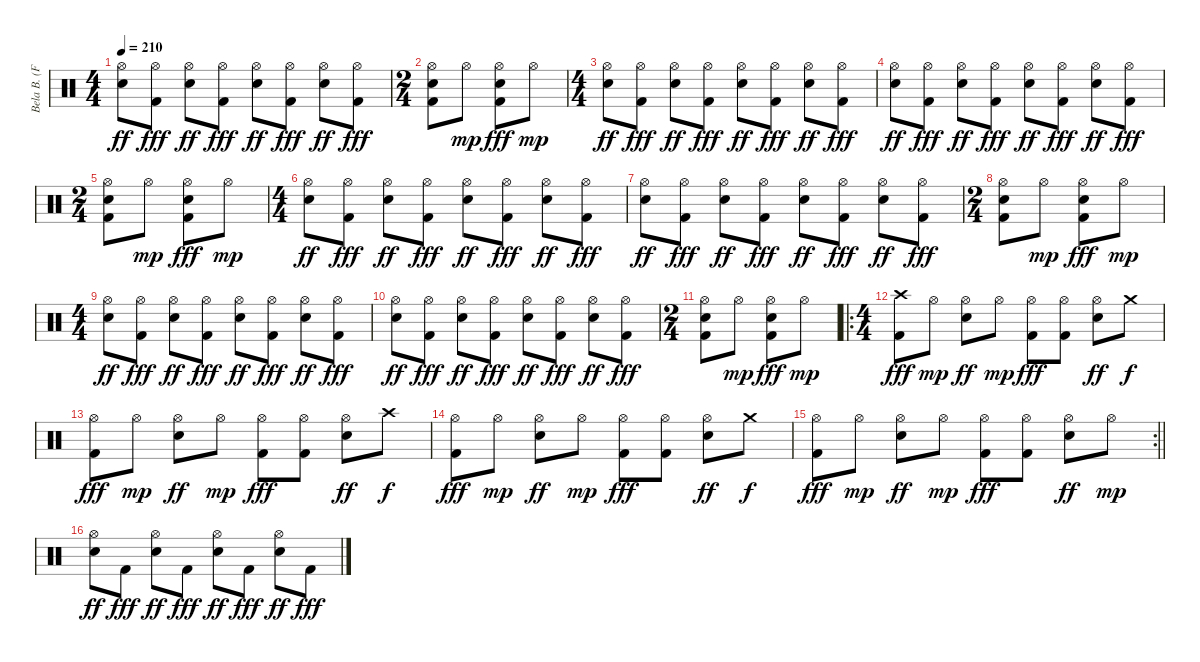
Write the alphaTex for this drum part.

\track ("Bela B. (Felsenheimer)" "Bela B. (F") {instrument percussion}
\staff {score}
\articulation defaults
\ts (4 4)
\tempo 210
\clef neutral
\ks c
("Hi-Hat (open)" "Electric Snare (hit)").8{dy ff} ("Hi-Hat (open)" "Kick (hit) 2").8{dy fff} ("Hi-Hat (open)" "Electric Snare (hit)").8{dy ff} ("Hi-Hat (open)" "Kick (hit) 2").8{dy fff} ("Hi-Hat (open)" "Electric Snare (hit)").8{dy ff} ("Hi-Hat (open)" "Kick (hit) 2").8{dy fff} ("Hi-Hat (open)" "Electric Snare (hit)").8{dy ff} ("Hi-Hat (open)" "Kick (hit) 2").8{dy fff} |
\ts (2 4)
("Hi-Hat (open)" "Electric Snare (hit)" "Kick (hit) 2").8 "Hi-Hat (open)".8{dy mp} ("Hi-Hat (open)" "Electric Snare (hit)" "Kick (hit) 2").8{dy fff} "Hi-Hat (open)".8{dy mp} |
\ts (4 4)
("Hi-Hat (open)" "Electric Snare (hit)").8{dy ff} ("Hi-Hat (open)" "Kick (hit) 2").8{dy fff} ("Hi-Hat (open)" "Electric Snare (hit)").8{dy ff} ("Hi-Hat (open)" "Kick (hit) 2").8{dy fff} ("Hi-Hat (open)" "Electric Snare (hit)").8{dy ff} ("Hi-Hat (open)" "Kick (hit) 2").8{dy fff} ("Hi-Hat (open)" "Electric Snare (hit)").8{dy ff} ("Hi-Hat (open)" "Kick (hit) 2").8{dy fff} |
("Hi-Hat (open)" "Electric Snare (hit)").8{dy ff} ("Hi-Hat (open)" "Kick (hit) 2").8{dy fff} ("Hi-Hat (open)" "Electric Snare (hit)").8{dy ff} ("Hi-Hat (open)" "Kick (hit) 2").8{dy fff} ("Hi-Hat (open)" "Electric Snare (hit)").8{dy ff} ("Hi-Hat (open)" "Kick (hit) 2").8{dy fff} ("Hi-Hat (open)" "Electric Snare (hit)").8{dy ff} ("Hi-Hat (open)" "Kick (hit) 2").8{dy fff} |
\ts (2 4)
("Hi-Hat (open)" "Electric Snare (hit)" "Kick (hit) 2").8 "Hi-Hat (open)".8{dy mp} ("Hi-Hat (open)" "Electric Snare (hit)" "Kick (hit) 2").8{dy fff} "Hi-Hat (open)".8{dy mp} |
\ts (4 4)
("Hi-Hat (open)" "Electric Snare (hit)").8{dy ff} ("Hi-Hat (open)" "Kick (hit) 2").8{dy fff} ("Hi-Hat (open)" "Electric Snare (hit)").8{dy ff} ("Hi-Hat (open)" "Kick (hit) 2").8{dy fff} ("Hi-Hat (open)" "Electric Snare (hit)").8{dy ff} ("Hi-Hat (open)" "Kick (hit) 2").8{dy fff} ("Hi-Hat (open)" "Electric Snare (hit)").8{dy ff} ("Hi-Hat (open)" "Kick (hit) 2").8{dy fff} |
("Hi-Hat (open)" "Electric Snare (hit)").8{dy ff} ("Hi-Hat (open)" "Kick (hit) 2").8{dy fff} ("Hi-Hat (open)" "Electric Snare (hit)").8{dy ff} ("Hi-Hat (open)" "Kick (hit) 2").8{dy fff} ("Hi-Hat (open)" "Electric Snare (hit)").8{dy ff} ("Hi-Hat (open)" "Kick (hit) 2").8{dy fff} ("Hi-Hat (open)" "Electric Snare (hit)").8{dy ff} ("Hi-Hat (open)" "Kick (hit) 2").8{dy fff} |
\ts (2 4)
("Hi-Hat (open)" "Electric Snare (hit)" "Kick (hit) 2").8 "Hi-Hat (open)".8{dy mp} ("Hi-Hat (open)" "Electric Snare (hit)" "Kick (hit) 2").8{dy fff} "Hi-Hat (open)".8{dy mp} |
\ts (4 4)
("Hi-Hat (open)" "Electric Snare (hit)").8{dy ff} ("Hi-Hat (open)" "Kick (hit) 2").8{dy fff} ("Hi-Hat (open)" "Electric Snare (hit)").8{dy ff} ("Hi-Hat (open)" "Kick (hit) 2").8{dy fff} ("Hi-Hat (open)" "Electric Snare (hit)").8{dy ff} ("Hi-Hat (open)" "Kick (hit) 2").8{dy fff} ("Hi-Hat (open)" "Electric Snare (hit)").8{dy ff} ("Hi-Hat (open)" "Kick (hit) 2").8{dy fff} |
("Hi-Hat (open)" "Electric Snare (hit)").8{dy ff} ("Hi-Hat (open)" "Kick (hit) 2").8{dy fff} ("Hi-Hat (open)" "Electric Snare (hit)").8{dy ff} ("Hi-Hat (open)" "Kick (hit) 2").8{dy fff} ("Hi-Hat (open)" "Electric Snare (hit)").8{dy ff} ("Hi-Hat (open)" "Kick (hit) 2").8{dy fff} ("Hi-Hat (open)" "Electric Snare (hit)").8{dy ff} ("Hi-Hat (open)" "Kick (hit) 2").8{dy fff} |
\ts (2 4)
("Hi-Hat (open)" "Electric Snare (hit)" "Kick (hit) 2").8 "Hi-Hat (open)".8{dy mp} ("Hi-Hat (open)" "Electric Snare (hit)" "Kick (hit) 2").8{dy fff} "Hi-Hat (open)".8{dy mp} |
\ro
\ts (4 4)
("Crash high (hit)" "Kick (hit) 2").8{dy fff} "Hi-Hat (open)".8{dy mp} ("Hi-Hat (open)" "Electric Snare (hit)").8{dy ff} "Hi-Hat (open)".8{dy mp} ("Hi-Hat (open)" "Kick (hit) 2").8{dy fff} ("Hi-Hat (open)" "Kick (hit) 2").8 ("Hi-Hat (open)" "Electric Snare (hit)").8{dy ff} "Crash medium (hit)".8{dy f} |
("Hi-Hat (open)" "Kick (hit) 2").8{dy fff} "Hi-Hat (open)".8{dy mp} ("Hi-Hat (open)" "Electric Snare (hit)").8{dy ff} "Hi-Hat (open)".8{dy mp} ("Hi-Hat (open)" "Kick (hit) 2").8{dy fff} ("Hi-Hat (open)" "Kick (hit) 2").8 ("Hi-Hat (open)" "Electric Snare (hit)").8{dy ff} "Crash high (hit)".8{dy f} |
("Hi-Hat (open)" "Kick (hit) 2").8{dy fff} "Hi-Hat (open)".8{dy mp} ("Hi-Hat (open)" "Electric Snare (hit)").8{dy ff} "Hi-Hat (open)".8{dy mp} ("Hi-Hat (open)" "Kick (hit) 2").8{dy fff} ("Hi-Hat (open)" "Kick (hit) 2").8 ("Hi-Hat (open)" "Electric Snare (hit)").8{dy ff} "Crash medium (hit)".8{dy f} |
\rc 2
\barLineRight lightlight
("Hi-Hat (open)" "Kick (hit) 2").8{dy fff} "Hi-Hat (open)".8{dy mp} ("Hi-Hat (open)" "Electric Snare (hit)").8{dy ff} "Hi-Hat (open)".8{dy mp} ("Hi-Hat (open)" "Kick (hit) 2").8{dy fff} ("Hi-Hat (open)" "Kick (hit) 2").8 ("Hi-Hat (open)" "Electric Snare (hit)").8{dy ff} "Hi-Hat (open)".8{dy mp} |
("Hi-Hat (open)" "Electric Snare (hit)").8{dy ff} "Kick (hit) 2".8{dy fff} ("Hi-Hat (open)" "Electric Snare (hit)").8{dy ff} "Kick (hit) 2".8{dy fff} ("Hi-Hat (open)" "Electric Snare (hit)").8{dy ff} "Kick (hit) 2".8{dy fff} ("Hi-Hat (open)" "Electric Snare (hit)").8{dy ff} "Kick (hit) 2".8{dy fff}
